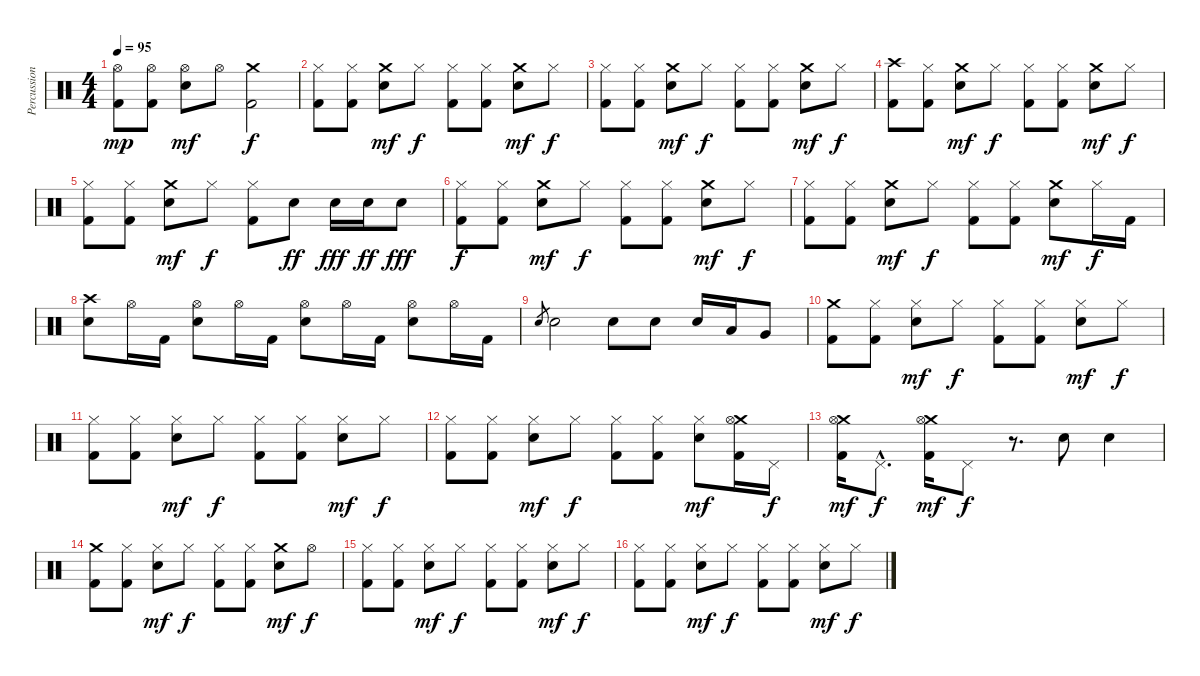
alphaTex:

\track ("Percussions" "Percussion") {instrument percussion}
\staff {score}
\articulation defaults
\ts (4 4)
\tempo 95
\clef neutral
\ks c
("Hi-Hat (open)" "Kick (hit) 2").8{dy mp} ("Hi-Hat (open)" "Kick (hit) 2").8 ("Hi-Hat (open)" "Electric Snare (hit)").8{dy mf} "Hi-Hat (open)".8 ("Crash medium (hit)" "Kick (hit) 2").2{dy f} |
("Hi-Hat (closed)" "Kick (hit) 2").8 ("Hi-Hat (closed)" "Kick (hit) 2").8 ("Crash medium (hit)" "Electric Snare (hit)").8{dy mf} "Hi-Hat (closed)".8{dy f} ("Hi-Hat (closed)" "Kick (hit) 2").8 ("Hi-Hat (closed)" "Kick (hit) 2").8 ("Crash medium (hit)" "Electric Snare (hit)").8{dy mf} "Hi-Hat (closed)".8{dy f} |
("Hi-Hat (closed)" "Kick (hit) 2").8 ("Hi-Hat (closed)" "Kick (hit) 2").8 ("Crash medium (hit)" "Electric Snare (hit)").8{dy mf} "Hi-Hat (closed)".8{dy f} ("Hi-Hat (closed)" "Kick (hit) 2").8 ("Hi-Hat (closed)" "Kick (hit) 2").8 ("Crash medium (hit)" "Electric Snare (hit)").8{dy mf} "Hi-Hat (closed)".8{dy f} |
("Crash high (hit)" "Kick (hit) 2").8 ("Hi-Hat (closed)" "Kick (hit) 2").8 ("Crash medium (hit)" "Electric Snare (hit)").8{dy mf} "Hi-Hat (closed)".8{dy f} ("Hi-Hat (closed)" "Kick (hit) 2").8 ("Hi-Hat (closed)" "Kick (hit) 2").8 ("Crash medium (hit)" "Electric Snare (hit)").8{dy mf} "Hi-Hat (closed)".8{dy f} |
("Hi-Hat (closed)" "Kick (hit) 2").8 ("Hi-Hat (closed)" "Kick (hit) 2").8 ("Crash medium (hit)" "Electric Snare (hit)").8{dy mf} "Hi-Hat (closed)".8{dy f} ("Hi-Hat (closed)" "Kick (hit) 2").8 "Electric Snare (hit)".8{dy ff} "Electric Snare (hit)".16{dy fff} "Electric Snare (hit)".16{dy ff} "Electric Snare (hit)".8{dy fff} |
("Hi-Hat (closed)" "Kick (hit) 2").8{dy f} ("Hi-Hat (closed)" "Kick (hit) 2").8 ("Crash medium (hit)" "Electric Snare (hit)").8{dy mf} "Hi-Hat (closed)".8{dy f} ("Hi-Hat (closed)" "Kick (hit) 2").8 ("Hi-Hat (closed)" "Kick (hit) 2").8 ("Crash medium (hit)" "Electric Snare (hit)").8{dy mf} "Hi-Hat (closed)".8{dy f} |
("Hi-Hat (closed)" "Kick (hit) 2").8 ("Hi-Hat (closed)" "Kick (hit) 2").8 ("Crash medium (hit)" "Electric Snare (hit)").8{dy mf} "Hi-Hat (closed)".8{dy f} ("Hi-Hat (closed)" "Kick (hit) 2").8 ("Hi-Hat (closed)" "Kick (hit) 2").8 ("Crash medium (hit)" "Electric Snare (hit)").8{dy mf} "Hi-Hat (closed)".16{dy f} "Kick (hit) 2".16 |
("Crash high (hit)" "Electric Snare (hit)").8 "Hi-Hat (open)".16 "Kick (hit) 2".16 ("Hi-Hat (open)" "Electric Snare (hit)").8 "Hi-Hat (open)".16 "Kick (hit) 2".16 ("Hi-Hat (open)" "Electric Snare (hit)").8 "Hi-Hat (open)".16 "Kick (hit) 2".16 ("Hi-Hat (open)" "Electric Snare (hit)").8 "Hi-Hat (open)".16 "Kick (hit) 2".16 |
"Electric Snare (hit)".8{gr} "Electric Snare (hit)".2 "Electric Snare (hit)".8 "Electric Snare (hit)".8 "Electric Snare (hit)".16 "Low Tom (hit)".16 "Very Low Tom (hit)".8 |
("Crash medium (hit)" "Kick (hit) 2").8 ("Hi-Hat (closed)" "Kick (hit) 2").8 ("Hi-Hat (closed)" "Electric Snare (hit)").8{dy mf} "Hi-Hat (closed)".8{dy f} ("Hi-Hat (closed)" "Kick (hit) 2").8 ("Hi-Hat (closed)" "Kick (hit) 2").8 ("Hi-Hat (closed)" "Electric Snare (hit)").8{dy mf} "Hi-Hat (closed)".8{dy f} |
("Hi-Hat (closed)" "Kick (hit) 2").8 ("Hi-Hat (closed)" "Kick (hit) 2").8 ("Hi-Hat (closed)" "Electric Snare (hit)").8{dy mf} "Hi-Hat (closed)".8{dy f} ("Hi-Hat (closed)" "Kick (hit) 2").8 ("Hi-Hat (closed)" "Kick (hit) 2").8 ("Hi-Hat (closed)" "Electric Snare (hit)").8{dy mf} "Hi-Hat (closed)".8{dy f} |
("Hi-Hat (closed)" "Kick (hit) 2").8 ("Hi-Hat (closed)" "Kick (hit) 2").8 ("Hi-Hat (closed)" "Electric Snare (hit)").8{dy mf} "Hi-Hat (closed)".8{dy f} ("Hi-Hat (closed)" "Kick (hit) 2").8 ("Hi-Hat (closed)" "Kick (hit) 2").8 ("Hi-Hat (closed)" "Electric Snare (hit)").8{dy mf} ("Crash medium (hit)" "Hi-Hat (open)" "Kick (hit) 2").16 "Pedal Hi-Hat (hit)".16{dy f} |
("Crash medium (hit)" "Hi-Hat (open)" "Kick (hit) 2").16{dy mf} "Pedal Hi-Hat (hit)"{hac}.8{d dy f} ("Crash medium (hit)" "Hi-Hat (open)" "Kick (hit) 2").16{dy mf} "Pedal Hi-Hat (hit)".8{dy f} r.8{d} "Electric Snare (hit)".8 "Electric Snare (hit)".4 |
("Crash medium (hit)" "Kick (hit) 2").8 ("Hi-Hat (closed)" "Kick (hit) 2").8 ("Hi-Hat (closed)" "Electric Snare (hit)").8{dy mf} "Hi-Hat (closed)".8{dy f} ("Hi-Hat (closed)" "Kick (hit) 2").8 ("Hi-Hat (closed)" "Kick (hit) 2").8 ("Crash medium (hit)" "Electric Snare (hit)").8{dy mf} "Hi-Hat (open)".8{dy f} |
("Hi-Hat (closed)" "Kick (hit) 2").8 ("Hi-Hat (closed)" "Kick (hit) 2").8 ("Hi-Hat (closed)" "Electric Snare (hit)").8{dy mf} "Hi-Hat (closed)".8{dy f} ("Hi-Hat (closed)" "Kick (hit) 2").8 ("Hi-Hat (closed)" "Kick (hit) 2").8 ("Hi-Hat (closed)" "Electric Snare (hit)").8{dy mf} "Hi-Hat (closed)".8{dy f} |
("Hi-Hat (closed)" "Kick (hit) 2").8 ("Hi-Hat (closed)" "Kick (hit) 2").8 ("Hi-Hat (closed)" "Electric Snare (hit)").8{dy mf} "Hi-Hat (closed)".8{dy f} ("Hi-Hat (closed)" "Kick (hit) 2").8 ("Hi-Hat (closed)" "Kick (hit) 2").8 ("Hi-Hat (closed)" "Electric Snare (hit)").8{dy mf} "Hi-Hat (closed)".8{dy f}
